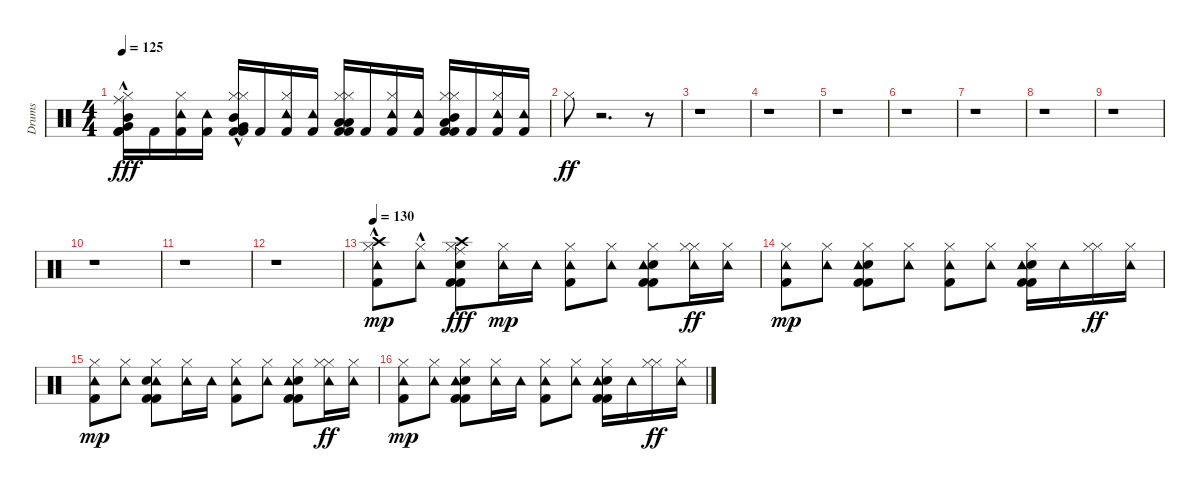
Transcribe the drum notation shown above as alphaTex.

\track ("Drums" "Drums") {instrument percussion}
\staff {score}
\articulation defaults
\ts (4 4)
\tempo 125
\clef neutral
\ks c
("Kick (hit) 2" "Kick (hit) 2" "Hi-Hat (closed)" "Mid Tom (hit)"{hac} "Very Low Tom (hit)" "Ride (middle)"{hac}).16{dy fff} "Kick (hit) 2".16 ("Kick (hit) 2" "Hi-Hat (closed)" "Tambourine (hit)").16 ("Kick (hit) 2" "Tambourine (hit)").16 ("Kick (hit) 2" "Kick (hit) 2" "Hi-Hat (closed)" "Hi-Hat (closed)" "Very Low Tom (hit)" "Mid Tom (hit)"{hac}).16 "Kick (hit) 2".16 ("Kick (hit) 2" "Hi-Hat (closed)" "Tambourine (hit)").16 ("Kick (hit) 2" "Tambourine (hit)").16 ("Kick (hit) 2" "Kick (hit) 2" "Hi-Hat (closed)" "Hi-Hat (closed)" "Low Tom (hit)" "Low Floor Tom (hit)").16 "Kick (hit) 2".16 ("Kick (hit) 2" "Hi-Hat (closed)" "Tambourine (hit)").16 ("Kick (hit) 2" "Tambourine (hit)").16 ("Kick (hit) 2" "Kick (hit) 2" "Hi-Hat (closed)" "Hi-Hat (closed)" "Low Floor Tom (hit)" "Mid Tom (hit)").16 "Kick (hit) 2".16 ("Kick (hit) 2" "Hi-Hat (closed)" "Tambourine (hit)").16 ("Kick (hit) 2" "Tambourine (hit)").16 |
"Hi-Hat (closed)".8{dy ff} r.2{d} r.8 |
r.1 |
r.1 |
r.1 |
r.1 |
r.1 |
r.1 |
r.1 |
r.1 |
r.1 |
r.1 |
\tempo 130
("Kick (hit) 2" "Hi-Hat (closed)" "Crash high (hit)"{hac} "Tambourine (hit)").8{dy mp} ("Hi-Hat (closed)" "Tambourine (hit)"{hac}).8 ("Kick (hit) 2" "Kick (hit) 2" "Snare (hit) 2" "Hi-Hat (closed)" "Ride (middle)" "Crash high (hit)").8{dy fff} ("Hi-Hat (closed)" "Tambourine (hit)").16{dy mp} "Tambourine (hit)".16 ("Kick (hit) 2" "Hi-Hat (closed)" "Tambourine (hit)").8 ("Hi-Hat (closed)" "Tambourine (hit)").8 ("Kick (hit) 2" "Snare (hit) 2" "Kick (hit) 2" "Hi-Hat (closed)" "Tambourine (hit)").8 ("Hi-Hat (closed)" "Tambourine (hit)" "Hi-Hat (closed)").16{dy ff} ("Tambourine (hit)" "Hi-Hat (closed)").16 |
("Kick (hit) 2" "Hi-Hat (closed)" "Tambourine (hit)").8{dy mp} ("Hi-Hat (closed)" "Tambourine (hit)").8 ("Kick (hit) 2" "Snare (hit) 2" "Kick (hit) 2" "Hi-Hat (closed)" "Tambourine (hit)").8 ("Hi-Hat (closed)" "Tambourine (hit)").8 ("Kick (hit) 2" "Hi-Hat (closed)" "Tambourine (hit)").8 ("Hi-Hat (closed)" "Tambourine (hit)").8 ("Kick (hit) 2" "Kick (hit) 2" "Snare (hit) 2" "Hi-Hat (closed)" "Tambourine (hit)").16 "Tambourine (hit)".16 ("Hi-Hat (closed)" "Hi-Hat (closed)").16{dy ff} ("Tambourine (hit)" "Hi-Hat (closed)").16 |
("Kick (hit) 2" "Hi-Hat (closed)" "Tambourine (hit)").8{dy mp} ("Hi-Hat (closed)" "Tambourine (hit)").8 ("Tambourine (hit)" "Kick (hit) 2" "Kick (hit) 2" "Snare (hit) 2" "Hi-Hat (closed)").8 ("Hi-Hat (closed)" "Tambourine (hit)").16 "Tambourine (hit)".16 ("Kick (hit) 2" "Hi-Hat (closed)" "Tambourine (hit)").8 ("Hi-Hat (closed)" "Tambourine (hit)").8 ("Kick (hit) 2" "Kick (hit) 2" "Snare (hit) 2" "Hi-Hat (closed)" "Tambourine (hit)").8 ("Hi-Hat (closed)" "Tambourine (hit)" "Hi-Hat (closed)").16{dy ff} ("Tambourine (hit)" "Hi-Hat (closed)").16 |
("Kick (hit) 2" "Hi-Hat (closed)" "Tambourine (hit)").8{dy mp} ("Hi-Hat (closed)" "Tambourine (hit)").8 ("Kick (hit) 2" "Snare (hit) 2" "Kick (hit) 2" "Hi-Hat (closed)" "Tambourine (hit)").8 ("Hi-Hat (closed)" "Tambourine (hit)").16 "Tambourine (hit)".16 ("Kick (hit) 2" "Hi-Hat (closed)" "Tambourine (hit)").8 ("Hi-Hat (closed)" "Tambourine (hit)").8 ("Kick (hit) 2" "Snare (hit) 2" "Kick (hit) 2" "Hi-Hat (closed)" "Tambourine (hit)").16 "Tambourine (hit)".16 ("Hi-Hat (closed)" "Hi-Hat (closed)").16{dy ff} ("Tambourine (hit)" "Hi-Hat (closed)").16
